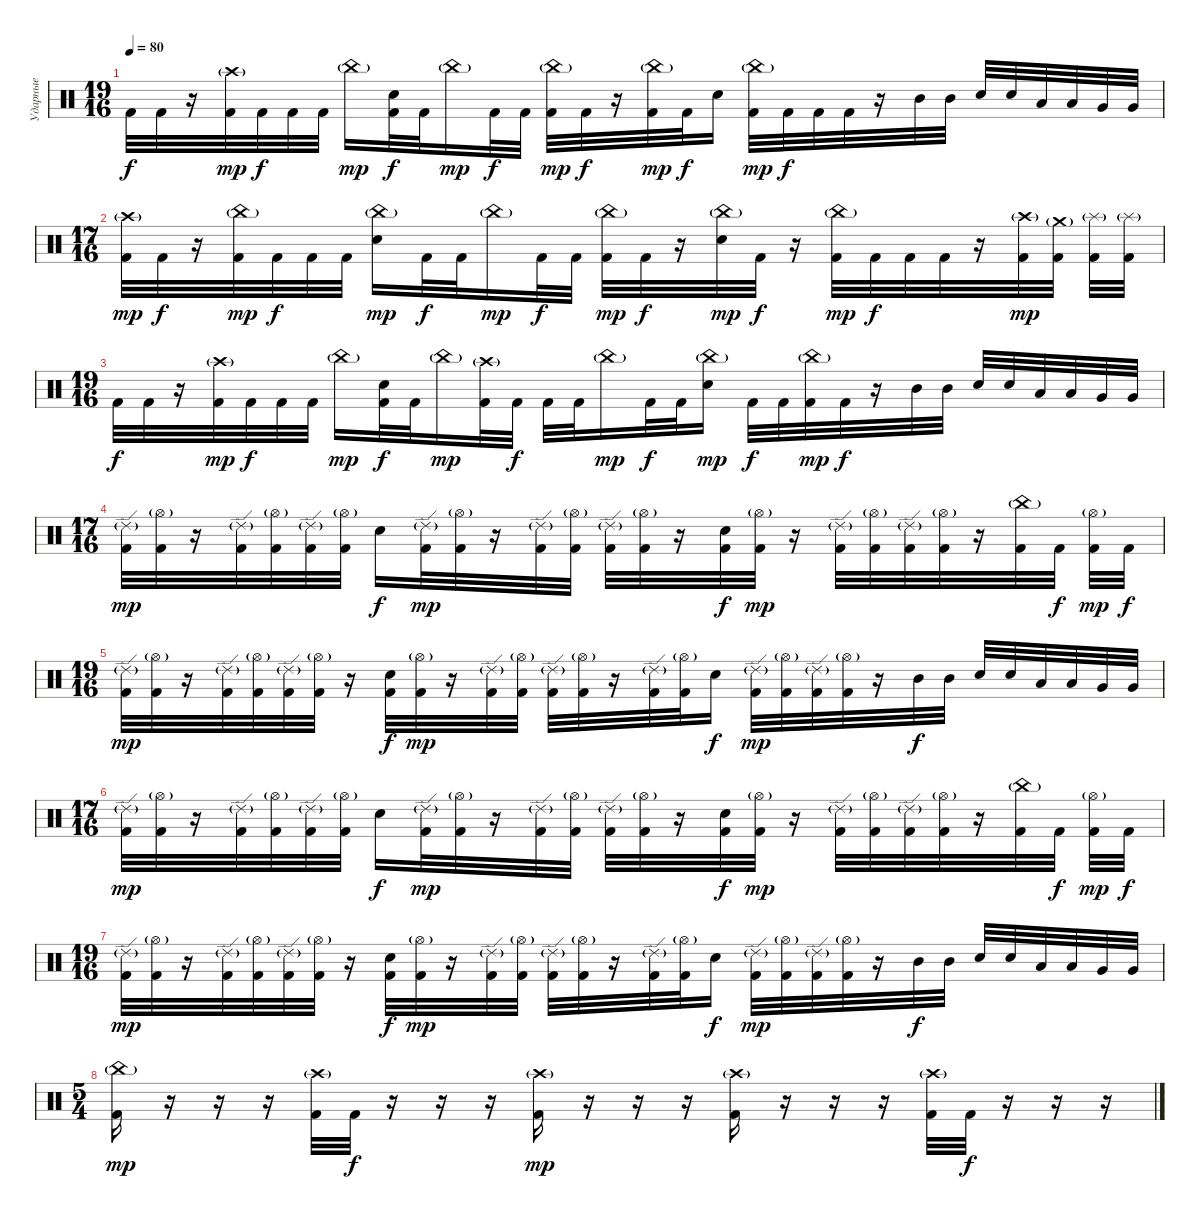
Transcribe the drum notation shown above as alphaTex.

\track ("Ударные" "Ударные") {instrument percussion}
\staff {score}
\articulation defaults
\ts (19 16)
\tempo 80
\clef neutral
\ks c "Kick (hit) 2".32{dy f} "Kick (hit) 2".32
r.16 ("Crash high (hit)"{g} "Kick (hit) 2").32{dy mp} "Kick (hit) 2".32{dy f} "Kick (hit) 2".32 "Kick (hit) 2".32 "China (hit)"{g}.16{dy mp} ("Electric Snare (hit)" "Kick (hit) 2").32{dy f} "Kick (hit) 2".32 "China (hit)"{g}.16{dy mp} "Kick (hit) 2".32{dy f} "Kick (hit) 2".32 ("China (hit)"{g} "Kick (hit) 2").32{dy mp} "Kick (hit) 2".32{dy f} r.16 ("China (hit)"{g} "Kick (hit) 2").32{dy mp} "Kick (hit) 2".32{dy f} "Electric Snare (hit)".16 ("China (hit)"{g} "Kick (hit) 2").32{dy mp} "Kick (hit) 2".32{dy f} "Kick (hit) 2".32 "Kick (hit) 2".32 r.16 "Mid Tom (hit)".32 "Mid Tom (hit)".32 "Electric Snare (hit)".32 "Electric Snare (hit)".32 "Low Tom (hit)".32 "Low Tom (hit)".32 "Very Low Tom (hit)".32 "Very Low Tom (hit)".32 |
\ts (17 16)
("Crash high (hit)"{g} "Kick (hit) 2").32{dy mp} "Kick (hit) 2".32{dy f} r.16 ("China (hit)"{g} "Kick (hit) 2").32{dy mp} "Kick (hit) 2".32{dy f} "Kick (hit) 2".32 "Kick (hit) 2".32 ("China (hit)"{g} "Electric Snare (hit)").16{dy mp} "Kick (hit) 2".32{dy f} "Kick (hit) 2".32 "China (hit)"{g}.16{dy mp} "Kick (hit) 2".32{dy f} "Kick (hit) 2".32 ("China (hit)"{g} "Kick (hit) 2").32{dy mp} "Kick (hit) 2".32{dy f} r.16 ("China (hit)"{g} "Electric Snare (hit)").32{dy mp} "Kick (hit) 2".32{dy f} r.16 ("China (hit)"{g} "Kick (hit) 2").32{dy mp} "Kick (hit) 2".32{dy f} "Kick (hit) 2".32 "Kick (hit) 2".32 r.16 ("Crash high (hit)"{g} "Kick (hit) 2").32{dy mp} ("Crash medium (hit)"{g} "Kick (hit) 2").32 ("Splash (hit)"{g} "Kick (hit) 2").32 ("Splash (hit)"{g} "Kick (hit) 2").32 |
\ts (19 16)
"Kick (hit) 2".32{dy f} "Kick (hit) 2".32 r.16 ("Crash high (hit)"{g} "Kick (hit) 2").32{dy mp} "Kick (hit) 2".32{dy f} "Kick (hit) 2".32 "Kick (hit) 2".32 "China (hit)"{g}.16{dy mp} ("Electric Snare (hit)" "Kick (hit) 2").32{dy f} "Kick (hit) 2".32 "China (hit)"{g}.16{dy mp} ("Crash high (hit)"{g} "Kick (hit) 2").32 "Kick (hit) 2".32{dy f} "Kick (hit) 2".32 "Kick (hit) 2".32 "China (hit)"{g}.16{dy mp} "Kick (hit) 2".32{dy f} "Kick (hit) 2".32 ("China (hit)"{g} "Electric Snare (hit)").16{dy mp} "Kick (hit) 2".32{dy f} "Kick (hit) 2".32 ("China (hit)"{g} "Kick (hit) 2").32{dy mp} "Kick (hit) 2".32{dy f} r.16 "Mid Tom (hit)".32 "Mid Tom (hit)".32 "Electric Snare (hit)".32 "Electric Snare (hit)".32 "Low Tom (hit)".32 "Low Tom (hit)".32 "Very Low Tom (hit)".32 "Very Low Tom (hit)".32 |
\ts (17 16)
("Ride (edge) 2"{g} "Kick (hit) 2").32{dy mp} ("Hi-Hat (open)"{g} "Kick (hit) 2").32 r.16 ("Ride (edge) 2"{g} "Kick (hit) 2").32 ("Hi-Hat (open)"{g} "Kick (hit) 2").32 ("Ride (edge) 2"{g} "Kick (hit) 2").32 ("Hi-Hat (open)"{g} "Kick (hit) 2").32 "Electric Snare (hit)".16{dy f} ("Ride (edge) 2"{g} "Kick (hit) 2").32{dy mp} ("Hi-Hat (open)"{g} "Kick (hit) 2").32 r.16 ("Ride (edge) 2"{g} "Kick (hit) 2").32 ("Hi-Hat (open)"{g} "Kick (hit) 2").32 ("Ride (edge) 2"{g} "Kick (hit) 2").32 ("Hi-Hat (open)"{g} "Kick (hit) 2").32 r.16 ("Electric Snare (hit)" "Kick (hit) 2").32{dy f} ("Hi-Hat (open)"{g} "Kick (hit) 2").32{dy mp} r.16 ("Ride (edge) 2"{g} "Kick (hit) 2").32 ("Hi-Hat (open)"{g} "Kick (hit) 2").32 ("Ride (edge) 2"{g} "Kick (hit) 2").32 ("Hi-Hat (open)"{g} "Kick (hit) 2").32 r.16 ("China (hit)"{g} "Kick (hit) 2").32 "Kick (hit) 2".32{dy f} ("Hi-Hat (open)"{g} "Kick (hit) 2").32{dy mp} "Kick (hit) 2".32{dy f} |
\ts (19 16)
("Ride (edge) 2"{g} "Kick (hit) 2").32{dy mp} ("Hi-Hat (open)"{g} "Kick (hit) 2").32 r.16 ("Ride (edge) 2"{g} "Kick (hit) 2").32 ("Hi-Hat (open)"{g} "Kick (hit) 2").32 ("Ride (edge) 2"{g} "Kick (hit) 2").32 ("Hi-Hat (open)"{g} "Kick (hit) 2").32 r.16 ("Electric Snare (hit)" "Kick (hit) 2").32{dy f} ("Hi-Hat (open)"{g} "Kick (hit) 2").32{dy mp} r.16 ("Ride (edge) 2"{g} "Kick (hit) 2").32 ("Hi-Hat (open)"{g} "Kick (hit) 2").32 ("Ride (edge) 2"{g} "Kick (hit) 2").32 ("Hi-Hat (open)"{g} "Kick (hit) 2").32 r.16 ("Ride (edge) 2"{g} "Kick (hit) 2").32 ("Hi-Hat (open)"{g} "Kick (hit) 2").32 "Electric Snare (hit)".16{dy f} ("Ride (edge) 2"{g} "Kick (hit) 2").32{dy mp} ("Hi-Hat (open)"{g} "Kick (hit) 2").32 ("Ride (edge) 2"{g} "Kick (hit) 2").32 ("Hi-Hat (open)"{g} "Kick (hit) 2").32 r.16 "Mid Tom (hit)".32{dy f} "Mid Tom (hit)".32 "Electric Snare (hit)".32 "Electric Snare (hit)".32 "Low Tom (hit)".32 "Low Tom (hit)".32 "Very Low Tom (hit)".32 "Very Low Tom (hit)".32 |
\ts (17 16)
("Ride (edge) 2"{g} "Kick (hit) 2").32{dy mp} ("Hi-Hat (open)"{g} "Kick (hit) 2").32 r.16 ("Ride (edge) 2"{g} "Kick (hit) 2").32 ("Hi-Hat (open)"{g} "Kick (hit) 2").32 ("Ride (edge) 2"{g} "Kick (hit) 2").32 ("Hi-Hat (open)"{g} "Kick (hit) 2").32 "Electric Snare (hit)".16{dy f} ("Ride (edge) 2"{g} "Kick (hit) 2").32{dy mp} ("Hi-Hat (open)"{g} "Kick (hit) 2").32 r.16 ("Ride (edge) 2"{g} "Kick (hit) 2").32 ("Hi-Hat (open)"{g} "Kick (hit) 2").32 ("Ride (edge) 2"{g} "Kick (hit) 2").32 ("Hi-Hat (open)"{g} "Kick (hit) 2").32 r.16 ("Electric Snare (hit)" "Kick (hit) 2").32{dy f} ("Hi-Hat (open)"{g} "Kick (hit) 2").32{dy mp} r.16 ("Ride (edge) 2"{g} "Kick (hit) 2").32 ("Hi-Hat (open)"{g} "Kick (hit) 2").32 ("Ride (edge) 2"{g} "Kick (hit) 2").32 ("Hi-Hat (open)"{g} "Kick (hit) 2").32 r.16 ("China (hit)"{g} "Kick (hit) 2").32 "Kick (hit) 2".32{dy f} ("Hi-Hat (open)"{g} "Kick (hit) 2").32{dy mp} "Kick (hit) 2".32{dy f} |
\ts (19 16)
("Ride (edge) 2"{g} "Kick (hit) 2").32{dy mp} ("Hi-Hat (open)"{g} "Kick (hit) 2").32 r.16 ("Ride (edge) 2"{g} "Kick (hit) 2").32 ("Hi-Hat (open)"{g} "Kick (hit) 2").32 ("Ride (edge) 2"{g} "Kick (hit) 2").32 ("Hi-Hat (open)"{g} "Kick (hit) 2").32 r.16 ("Electric Snare (hit)" "Kick (hit) 2").32{dy f} ("Hi-Hat (open)"{g} "Kick (hit) 2").32{dy mp} r.16 ("Ride (edge) 2"{g} "Kick (hit) 2").32 ("Hi-Hat (open)"{g} "Kick (hit) 2").32 ("Ride (edge) 2"{g} "Kick (hit) 2").32 ("Hi-Hat (open)"{g} "Kick (hit) 2").32 r.16 ("Ride (edge) 2"{g} "Kick (hit) 2").32 ("Hi-Hat (open)"{g} "Kick (hit) 2").32 "Electric Snare (hit)".16{dy f} ("Ride (edge) 2"{g} "Kick (hit) 2").32{dy mp} ("Hi-Hat (open)"{g} "Kick (hit) 2").32 ("Ride (edge) 2"{g} "Kick (hit) 2").32 ("Hi-Hat (open)"{g} "Kick (hit) 2").32 r.16 "Mid Tom (hit)".32{dy f} "Mid Tom (hit)".32 "Electric Snare (hit)".32 "Electric Snare (hit)".32 "Low Tom (hit)".32 "Low Tom (hit)".32 "Very Low Tom (hit)".32 "Very Low Tom (hit)".32 |
\ts (5 4)
("China (hit)"{g} "Kick (hit) 2").16{dy mp} r.16{volume 0} r.16 r.16 ("Crash high (hit)"{g} "Kick (hit) 2").32{volume 16} "Kick (hit) 2".32{dy f} r.16{volume 0} r.16 r.16 ("Crash high (hit)"{g} "Kick (hit) 2").16{dy mp volume 16} r.16{volume 0} r.16 r.16 ("Crash high (hit)"{g} "Kick (hit) 2").16{volume 16} r.16{volume 0} r.16 r.16 ("Crash high (hit)"{g} "Kick (hit) 2").32{volume 16} "Kick (hit) 2".32{dy f} r.16{volume 0} r.16 r.16
